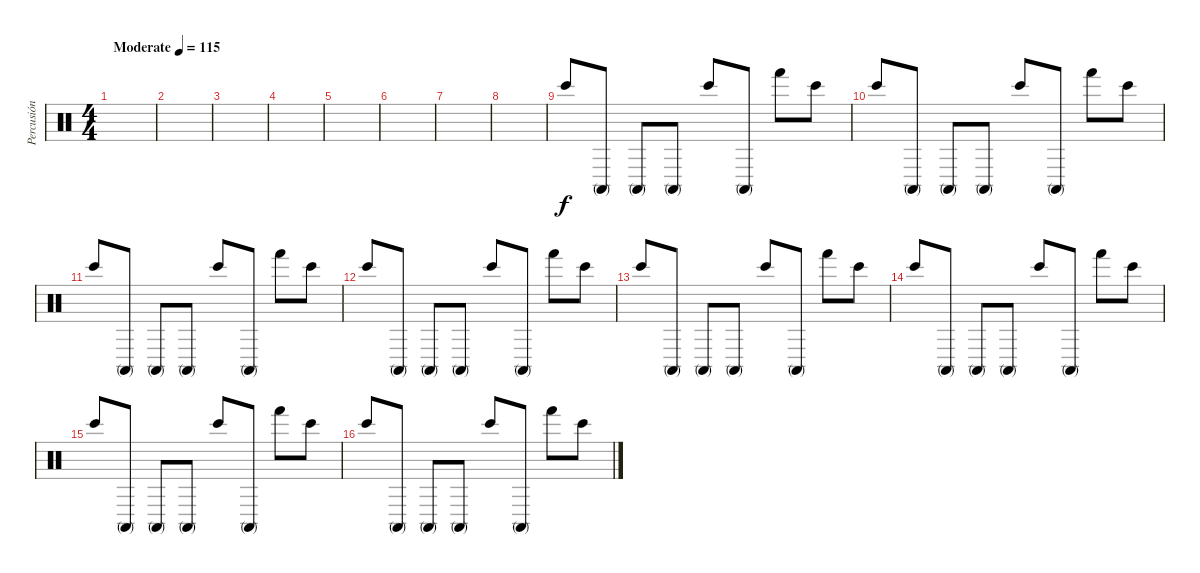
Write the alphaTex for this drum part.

\track ("Percusión" "Percusión") {instrument percussion}
\staff {score}
\articulation defaults
\ts (4 4)
\tempo (115 "Moderate")
\clef neutral
\ks c
|
|
|
|
|
|
|
|
"Bongo High (hit)".8 "Conga high (mute)".8 "Conga high (mute)".8 "Conga high (mute)".8 "Bongo High (hit)".8 "Conga high (mute)".8 "Hand (hit)".8 "Bongo High (hit)".8 |
"Bongo High (hit)".8 "Conga high (mute)".8 "Conga high (mute)".8 "Conga high (mute)".8 "Bongo High (hit)".8 "Conga high (mute)".8 "Hand (hit)".8 "Bongo High (hit)".8 |
"Bongo High (hit)".8 "Conga high (mute)".8 "Conga high (mute)".8 "Conga high (mute)".8 "Bongo High (hit)".8 "Conga high (mute)".8 "Hand (hit)".8 "Bongo High (hit)".8 |
"Bongo High (hit)".8 "Conga high (mute)".8 "Conga high (mute)".8 "Conga high (mute)".8 "Bongo High (hit)".8 "Conga high (mute)".8 "Hand (hit)".8 "Bongo High (hit)".8 |
"Bongo High (hit)".8 "Conga high (mute)".8 "Conga high (mute)".8 "Conga high (mute)".8 "Bongo High (hit)".8 "Conga high (mute)".8 "Hand (hit)".8 "Bongo High (hit)".8 |
"Bongo High (hit)".8 "Conga high (mute)".8 "Conga high (mute)".8 "Conga high (mute)".8 "Bongo High (hit)".8 "Conga high (mute)".8 "Hand (hit)".8 "Bongo High (hit)".8 |
"Bongo High (hit)".8 "Conga high (mute)".8 "Conga high (mute)".8 "Conga high (mute)".8 "Bongo High (hit)".8 "Conga high (mute)".8 "Hand (hit)".8 "Bongo High (hit)".8 |
"Bongo High (hit)".8 "Conga high (mute)".8 "Conga high (mute)".8 "Conga high (mute)".8 "Bongo High (hit)".8 "Conga high (mute)".8 "Hand (hit)".8 "Bongo High (hit)".8
